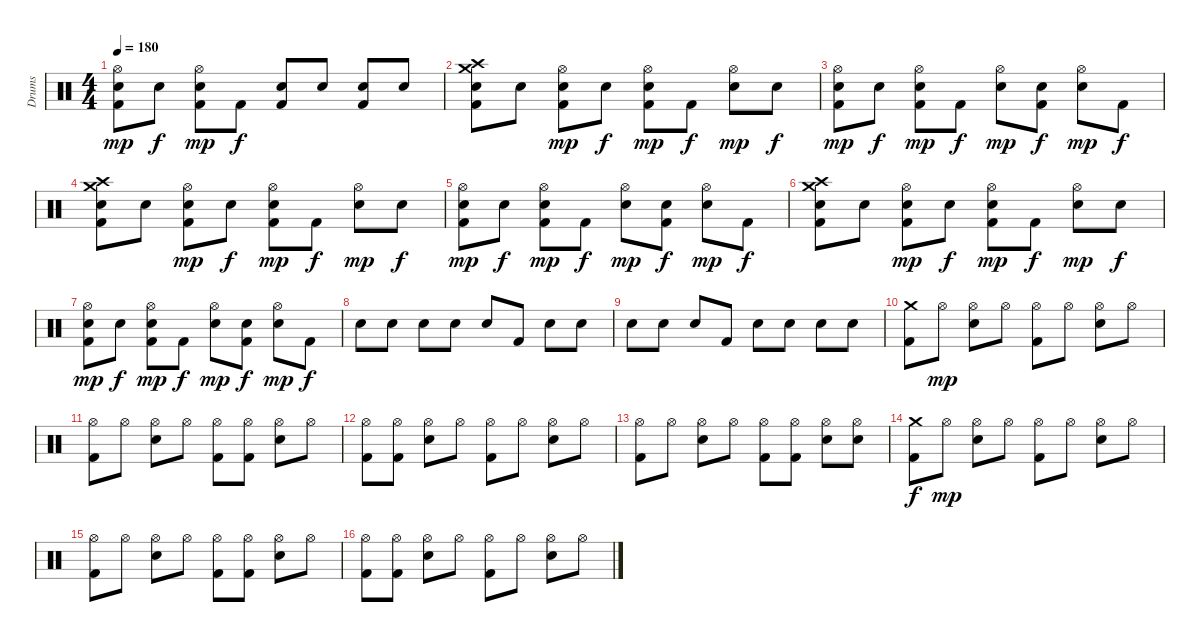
\track ("Drums" "Drums") {instrument percussion}
\staff {score}
\articulation defaults
\ts (4 4)
\tempo 180
\clef neutral
\ks c
("Hi-Hat (open)" "Snare (hit) 2" "Kick (hit) 2").8{dy mp} "Snare (hit) 2".8{dy f} ("Hi-Hat (open)" "Snare (hit) 2" "Kick (hit) 2").8{dy mp} "Kick (hit) 2".8{dy f} ("Snare (hit) 2" "Kick (hit) 2").8 "Snare (hit) 2".8 ("Snare (hit) 2" "Kick (hit) 2").8 "Snare (hit) 2".8 |
("Crash medium (hit)" "Crash high (hit)" "Snare (hit) 2" "Kick (hit) 2").8 "Snare (hit) 2".8 ("Hi-Hat (open)" "Snare (hit) 2" "Kick (hit) 2").8{dy mp} "Snare (hit) 2".8{dy f} ("Hi-Hat (open)" "Snare (hit) 2" "Kick (hit) 2").8{dy mp} "Kick (hit) 2".8{dy f} ("Hi-Hat (open)" "Snare (hit) 2").8{dy mp} "Snare (hit) 2".8{dy f} |
("Hi-Hat (open)" "Snare (hit) 2" "Kick (hit) 2").8{dy mp} "Snare (hit) 2".8{dy f} ("Hi-Hat (open)" "Snare (hit) 2" "Kick (hit) 2").8{dy mp} "Kick (hit) 2".8{dy f} ("Hi-Hat (open)" "Snare (hit) 2").8{dy mp} ("Snare (hit) 2" "Kick (hit) 2").8{dy f} ("Hi-Hat (open)" "Snare (hit) 2").8{dy mp} "Kick (hit) 2".8{dy f} |
("Crash medium (hit)" "Crash high (hit)" "Snare (hit) 2" "Kick (hit) 2").8 "Snare (hit) 2".8 ("Hi-Hat (open)" "Snare (hit) 2" "Kick (hit) 2").8{dy mp} "Snare (hit) 2".8{dy f} ("Hi-Hat (open)" "Snare (hit) 2" "Kick (hit) 2").8{dy mp} "Kick (hit) 2".8{dy f} ("Hi-Hat (open)" "Snare (hit) 2").8{dy mp} "Snare (hit) 2".8{dy f} |
("Hi-Hat (open)" "Snare (hit) 2" "Kick (hit) 2").8{dy mp} "Snare (hit) 2".8{dy f} ("Hi-Hat (open)" "Snare (hit) 2" "Kick (hit) 2").8{dy mp} "Kick (hit) 2".8{dy f} ("Hi-Hat (open)" "Snare (hit) 2").8{dy mp} ("Snare (hit) 2" "Kick (hit) 2").8{dy f} ("Hi-Hat (open)" "Snare (hit) 2").8{dy mp} "Kick (hit) 2".8{dy f} |
("Crash medium (hit)" "Crash high (hit)" "Snare (hit) 2" "Kick (hit) 2").8 "Snare (hit) 2".8 ("Hi-Hat (open)" "Snare (hit) 2" "Kick (hit) 2").8{dy mp} "Snare (hit) 2".8{dy f} ("Hi-Hat (open)" "Snare (hit) 2" "Kick (hit) 2").8{dy mp} "Kick (hit) 2".8{dy f} ("Hi-Hat (open)" "Snare (hit) 2").8{dy mp} "Snare (hit) 2".8{dy f} |
("Hi-Hat (open)" "Snare (hit) 2" "Kick (hit) 2").8{dy mp} "Snare (hit) 2".8{dy f} ("Hi-Hat (open)" "Snare (hit) 2" "Kick (hit) 2").8{dy mp} "Kick (hit) 2".8{dy f} ("Hi-Hat (open)" "Snare (hit) 2").8{dy mp} ("Snare (hit) 2" "Kick (hit) 2").8{dy f} ("Hi-Hat (open)" "Snare (hit) 2").8{dy mp} "Kick (hit) 2".8{dy f} |
"Snare (hit) 2".8 "Snare (hit) 2".8 "Snare (hit) 2".8 "Snare (hit) 2".8 "Snare (hit) 2".8 "Kick (hit) 2".8 "Snare (hit) 2".8 "Snare (hit) 2".8 |
"Snare (hit) 2".8 "Snare (hit) 2".8 "Snare (hit) 2".8 "Kick (hit) 2".8 "Snare (hit) 2".8 "Snare (hit) 2".8 "Snare (hit) 2".8 "Snare (hit) 2".8 |
("Crash medium (hit)" "Kick (hit) 2").8 "Hi-Hat (open)".8{dy mp} ("Hi-Hat (open)" "Snare (hit) 2").8 "Hi-Hat (open)".8 ("Hi-Hat (open)" "Kick (hit) 2").8 "Hi-Hat (open)".8 ("Hi-Hat (open)" "Snare (hit) 2").8 "Hi-Hat (open)".8 |
("Hi-Hat (open)" "Kick (hit) 2").8 "Hi-Hat (open)".8 ("Hi-Hat (open)" "Snare (hit) 2").8 "Hi-Hat (open)".8 ("Hi-Hat (open)" "Kick (hit) 2").8 ("Hi-Hat (open)" "Kick (hit) 2").8 ("Hi-Hat (open)" "Snare (hit) 2").8 "Hi-Hat (open)".8 |
("Hi-Hat (open)" "Kick (hit) 2").8 ("Hi-Hat (open)" "Kick (hit) 2").8 ("Hi-Hat (open)" "Snare (hit) 2").8 "Hi-Hat (open)".8 ("Hi-Hat (open)" "Kick (hit) 2").8 "Hi-Hat (open)".8 ("Hi-Hat (open)" "Snare (hit) 2").8 "Hi-Hat (open)".8 |
("Hi-Hat (open)" "Kick (hit) 2").8 "Hi-Hat (open)".8 ("Hi-Hat (open)" "Snare (hit) 2").8 "Hi-Hat (open)".8 ("Hi-Hat (open)" "Kick (hit) 2").8 ("Hi-Hat (open)" "Kick (hit) 2").8 ("Hi-Hat (open)" "Snare (hit) 2").8 ("Hi-Hat (open)" "Snare (hit) 2").8 |
("Crash medium (hit)" "Kick (hit) 2").8{dy f} "Hi-Hat (open)".8{dy mp} ("Hi-Hat (open)" "Snare (hit) 2").8 "Hi-Hat (open)".8 ("Hi-Hat (open)" "Kick (hit) 2").8 "Hi-Hat (open)".8 ("Hi-Hat (open)" "Snare (hit) 2").8 "Hi-Hat (open)".8 |
("Hi-Hat (open)" "Kick (hit) 2").8 "Hi-Hat (open)".8 ("Hi-Hat (open)" "Snare (hit) 2").8 "Hi-Hat (open)".8 ("Hi-Hat (open)" "Kick (hit) 2").8 ("Hi-Hat (open)" "Kick (hit) 2").8 ("Hi-Hat (open)" "Snare (hit) 2").8 "Hi-Hat (open)".8 |
("Hi-Hat (open)" "Kick (hit) 2").8 ("Hi-Hat (open)" "Kick (hit) 2").8 ("Hi-Hat (open)" "Snare (hit) 2").8 "Hi-Hat (open)".8 ("Hi-Hat (open)" "Kick (hit) 2").8 "Hi-Hat (open)".8 ("Hi-Hat (open)" "Snare (hit) 2").8 "Hi-Hat (open)".8
